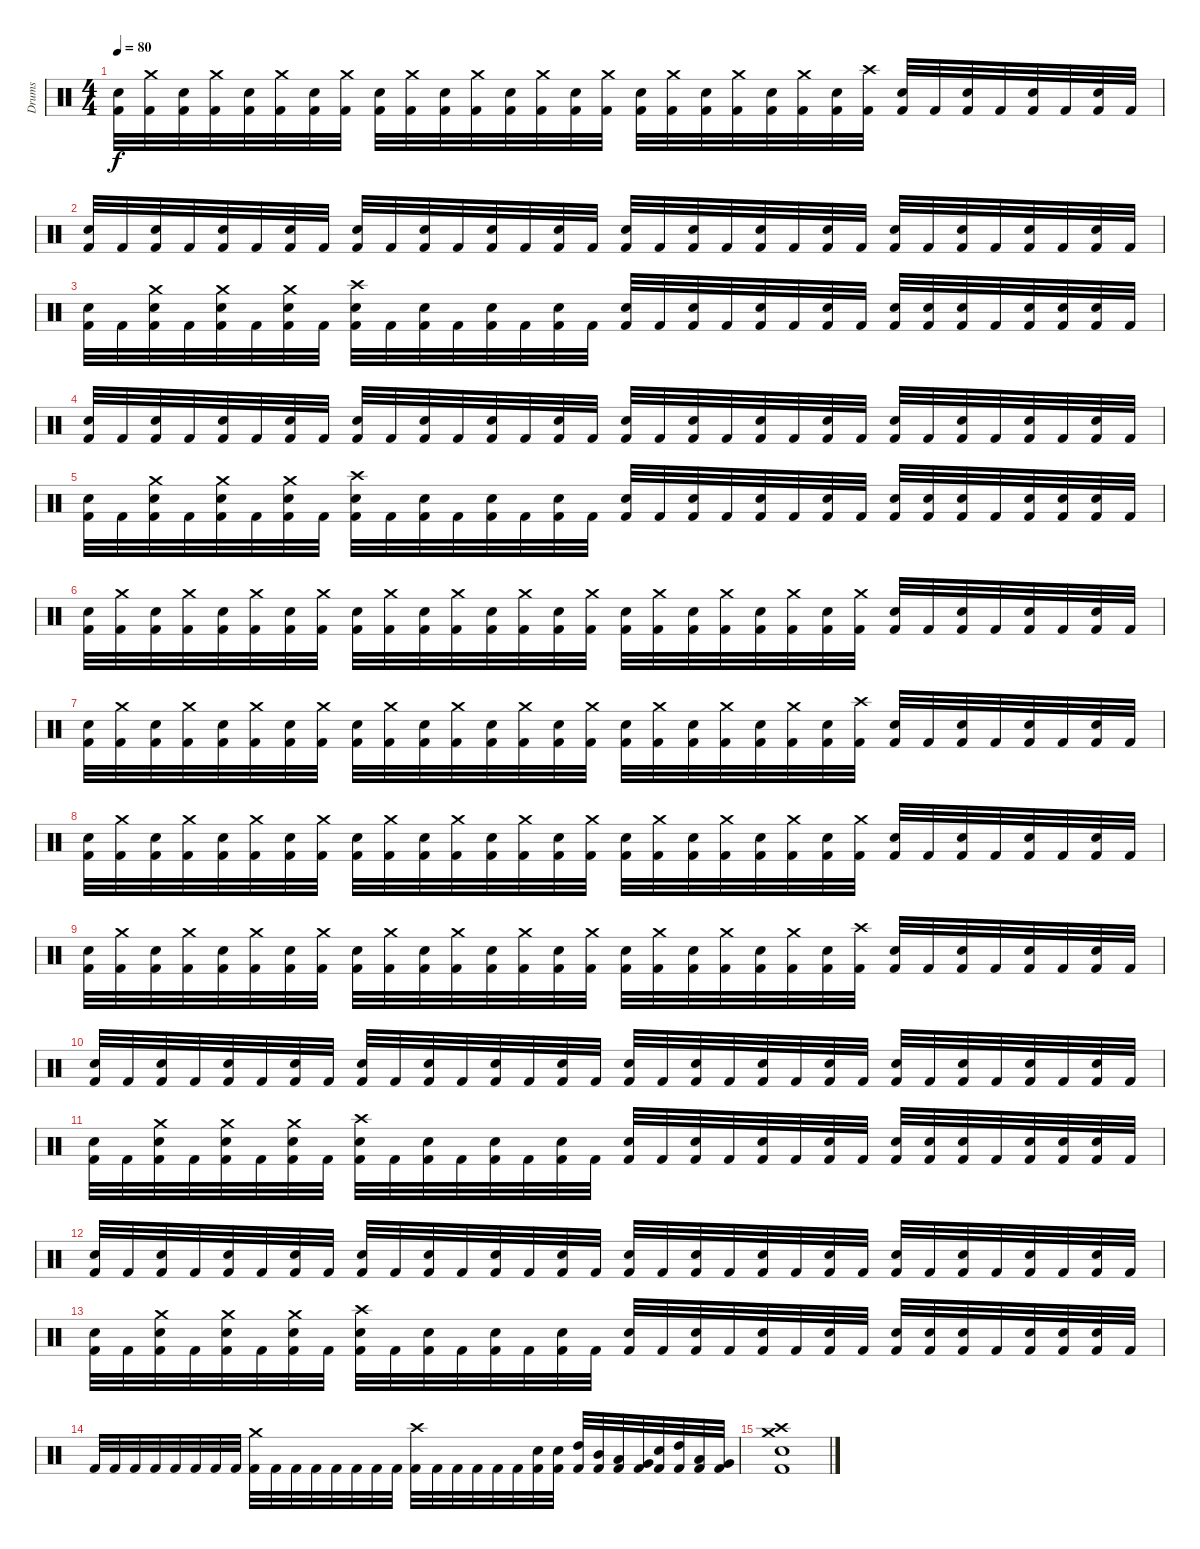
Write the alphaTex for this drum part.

\track ("Drums" "Drums") {instrument percussion}
\staff {score}
\articulation defaults
\ts (4 4)
\tempo 80
\clef neutral
\ks c
("Kick (hit) 2" "Snare (hit) 2").32{dy f} ("Kick (hit) 2" "Crash medium (hit)").32 ("Kick (hit) 2" "Snare (hit) 2").32 ("Kick (hit) 2" "Crash medium (hit)").32 ("Kick (hit) 2" "Snare (hit) 2").32 ("Kick (hit) 2" "Crash medium (hit)").32 ("Kick (hit) 2" "Snare (hit) 2").32 ("Kick (hit) 2" "Crash medium (hit)").32 ("Kick (hit) 2" "Snare (hit) 2").32 ("Kick (hit) 2" "Crash medium (hit)").32 ("Kick (hit) 2" "Snare (hit) 2").32 ("Kick (hit) 2" "Crash medium (hit)").32 ("Kick (hit) 2" "Snare (hit) 2").32 ("Kick (hit) 2" "Crash medium (hit)").32 ("Kick (hit) 2" "Snare (hit) 2").32 ("Kick (hit) 2" "Crash medium (hit)").32 ("Kick (hit) 2" "Snare (hit) 2").32 ("Kick (hit) 2" "Crash medium (hit)").32 ("Kick (hit) 2" "Snare (hit) 2").32 ("Kick (hit) 2" "Crash medium (hit)").32 ("Kick (hit) 2" "Snare (hit) 2").32 ("Kick (hit) 2" "Crash medium (hit)").32 ("Kick (hit) 2" "Snare (hit) 2").32 ("Kick (hit) 2" "Crash high (hit)").32 ("Kick (hit) 2" "Snare (hit) 2").32 "Kick (hit) 2".32 ("Kick (hit) 2" "Snare (hit) 2").32 "Kick (hit) 2".32 ("Kick (hit) 2" "Snare (hit) 2").32 "Kick (hit) 2".32 ("Kick (hit) 2" "Snare (hit) 2").32 "Kick (hit) 2".32 |
("Kick (hit) 2" "Snare (hit) 2").32 "Kick (hit) 2".32 ("Kick (hit) 2" "Snare (hit) 2").32 "Kick (hit) 2".32 ("Kick (hit) 2" "Snare (hit) 2").32 "Kick (hit) 2".32 ("Kick (hit) 2" "Snare (hit) 2").32 "Kick (hit) 2".32 ("Kick (hit) 2" "Snare (hit) 2").32 "Kick (hit) 2".32 ("Kick (hit) 2" "Snare (hit) 2").32 "Kick (hit) 2".32 ("Kick (hit) 2" "Snare (hit) 2").32 "Kick (hit) 2".32 ("Kick (hit) 2" "Snare (hit) 2").32 "Kick (hit) 2".32 ("Kick (hit) 2" "Snare (hit) 2").32 "Kick (hit) 2".32 ("Kick (hit) 2" "Snare (hit) 2").32 "Kick (hit) 2".32 ("Kick (hit) 2" "Snare (hit) 2").32 "Kick (hit) 2".32 ("Kick (hit) 2" "Snare (hit) 2").32 "Kick (hit) 2".32 ("Kick (hit) 2" "Snare (hit) 2").32 "Kick (hit) 2".32 ("Kick (hit) 2" "Snare (hit) 2").32 "Kick (hit) 2".32 ("Kick (hit) 2" "Snare (hit) 2").32 "Kick (hit) 2".32 ("Kick (hit) 2" "Snare (hit) 2").32 "Kick (hit) 2".32 |
("Kick (hit) 2" "Snare (hit) 2").32 "Kick (hit) 2".32 ("Kick (hit) 2" "Snare (hit) 2" "Crash medium (hit)").32 "Kick (hit) 2".32 ("Kick (hit) 2" "Snare (hit) 2" "Crash medium (hit)").32 "Kick (hit) 2".32 ("Kick (hit) 2" "Snare (hit) 2" "Crash medium (hit)").32 "Kick (hit) 2".32 ("Kick (hit) 2" "Snare (hit) 2" "Crash high (hit)").32 "Kick (hit) 2".32 ("Kick (hit) 2" "Snare (hit) 2").32 "Kick (hit) 2".32 ("Kick (hit) 2" "Snare (hit) 2").32 "Kick (hit) 2".32 ("Kick (hit) 2" "Snare (hit) 2").32 "Kick (hit) 2".32 ("Kick (hit) 2" "Snare (hit) 2").32 "Kick (hit) 2".32 ("Kick (hit) 2" "Snare (hit) 2").32 "Kick (hit) 2".32 ("Kick (hit) 2" "Snare (hit) 2").32 "Kick (hit) 2".32 ("Kick (hit) 2" "Snare (hit) 2").32 "Kick (hit) 2".32 ("Kick (hit) 2" "Snare (hit) 2").32 ("Kick (hit) 2" "Snare (hit) 2").32 ("Kick (hit) 2" "Snare (hit) 2").32 "Kick (hit) 2".32 ("Kick (hit) 2" "Snare (hit) 2").32 ("Kick (hit) 2" "Snare (hit) 2").32 ("Kick (hit) 2" "Snare (hit) 2").32 "Kick (hit) 2".32 |
("Kick (hit) 2" "Snare (hit) 2").32 "Kick (hit) 2".32 ("Kick (hit) 2" "Snare (hit) 2").32 "Kick (hit) 2".32 ("Kick (hit) 2" "Snare (hit) 2").32 "Kick (hit) 2".32 ("Kick (hit) 2" "Snare (hit) 2").32 "Kick (hit) 2".32 ("Kick (hit) 2" "Snare (hit) 2").32 "Kick (hit) 2".32 ("Kick (hit) 2" "Snare (hit) 2").32 "Kick (hit) 2".32 ("Kick (hit) 2" "Snare (hit) 2").32 "Kick (hit) 2".32 ("Kick (hit) 2" "Snare (hit) 2").32 "Kick (hit) 2".32 ("Kick (hit) 2" "Snare (hit) 2").32 "Kick (hit) 2".32 ("Kick (hit) 2" "Snare (hit) 2").32 "Kick (hit) 2".32 ("Kick (hit) 2" "Snare (hit) 2").32 "Kick (hit) 2".32 ("Kick (hit) 2" "Snare (hit) 2").32 "Kick (hit) 2".32 ("Kick (hit) 2" "Snare (hit) 2").32 "Kick (hit) 2".32 ("Kick (hit) 2" "Snare (hit) 2").32 "Kick (hit) 2".32 ("Kick (hit) 2" "Snare (hit) 2").32 "Kick (hit) 2".32 ("Kick (hit) 2" "Snare (hit) 2").32 "Kick (hit) 2".32 |
("Kick (hit) 2" "Snare (hit) 2").32 "Kick (hit) 2".32 ("Kick (hit) 2" "Snare (hit) 2" "Crash medium (hit)").32 "Kick (hit) 2".32 ("Kick (hit) 2" "Snare (hit) 2" "Crash medium (hit)").32 "Kick (hit) 2".32 ("Kick (hit) 2" "Snare (hit) 2" "Crash medium (hit)").32 "Kick (hit) 2".32 ("Kick (hit) 2" "Snare (hit) 2" "Crash high (hit)").32 "Kick (hit) 2".32 ("Kick (hit) 2" "Snare (hit) 2").32 "Kick (hit) 2".32 ("Kick (hit) 2" "Snare (hit) 2").32 "Kick (hit) 2".32 ("Kick (hit) 2" "Snare (hit) 2").32 "Kick (hit) 2".32 ("Kick (hit) 2" "Snare (hit) 2").32 "Kick (hit) 2".32 ("Kick (hit) 2" "Snare (hit) 2").32 "Kick (hit) 2".32 ("Kick (hit) 2" "Snare (hit) 2").32 "Kick (hit) 2".32 ("Kick (hit) 2" "Snare (hit) 2").32 "Kick (hit) 2".32 ("Kick (hit) 2" "Snare (hit) 2").32 ("Kick (hit) 2" "Snare (hit) 2").32 ("Kick (hit) 2" "Snare (hit) 2").32 "Kick (hit) 2".32 ("Kick (hit) 2" "Snare (hit) 2").32 ("Kick (hit) 2" "Snare (hit) 2").32 ("Kick (hit) 2" "Snare (hit) 2").32 "Kick (hit) 2".32 |
("Kick (hit) 2" "Snare (hit) 2").32 ("Kick (hit) 2" "Crash medium (hit)").32 ("Kick (hit) 2" "Snare (hit) 2").32 ("Kick (hit) 2" "Crash medium (hit)").32 ("Kick (hit) 2" "Snare (hit) 2").32 ("Kick (hit) 2" "Crash medium (hit)").32 ("Kick (hit) 2" "Snare (hit) 2").32 ("Kick (hit) 2" "Crash medium (hit)").32 ("Kick (hit) 2" "Snare (hit) 2").32 ("Kick (hit) 2" "Crash medium (hit)").32 ("Kick (hit) 2" "Snare (hit) 2").32 ("Kick (hit) 2" "Crash medium (hit)").32 ("Kick (hit) 2" "Snare (hit) 2").32 ("Kick (hit) 2" "Crash medium (hit)").32 ("Kick (hit) 2" "Snare (hit) 2").32 ("Kick (hit) 2" "Crash medium (hit)").32 ("Kick (hit) 2" "Snare (hit) 2").32 ("Kick (hit) 2" "Crash medium (hit)").32 ("Kick (hit) 2" "Snare (hit) 2").32 ("Kick (hit) 2" "Crash medium (hit)").32 ("Kick (hit) 2" "Snare (hit) 2").32 ("Kick (hit) 2" "Crash medium (hit)").32 ("Kick (hit) 2" "Snare (hit) 2").32 ("Kick (hit) 2" "Crash medium (hit)").32 ("Kick (hit) 2" "Snare (hit) 2").32 "Kick (hit) 2".32 ("Kick (hit) 2" "Snare (hit) 2").32 "Kick (hit) 2".32 ("Kick (hit) 2" "Snare (hit) 2").32 "Kick (hit) 2".32 ("Kick (hit) 2" "Snare (hit) 2").32 "Kick (hit) 2".32 |
("Kick (hit) 2" "Snare (hit) 2").32 ("Kick (hit) 2" "Crash medium (hit)").32 ("Kick (hit) 2" "Snare (hit) 2").32 ("Kick (hit) 2" "Crash medium (hit)").32 ("Kick (hit) 2" "Snare (hit) 2").32 ("Kick (hit) 2" "Crash medium (hit)").32 ("Kick (hit) 2" "Snare (hit) 2").32 ("Kick (hit) 2" "Crash medium (hit)").32 ("Kick (hit) 2" "Snare (hit) 2").32 ("Kick (hit) 2" "Crash medium (hit)").32 ("Kick (hit) 2" "Snare (hit) 2").32 ("Kick (hit) 2" "Crash medium (hit)").32 ("Kick (hit) 2" "Snare (hit) 2").32 ("Kick (hit) 2" "Crash medium (hit)").32 ("Kick (hit) 2" "Snare (hit) 2").32 ("Kick (hit) 2" "Crash medium (hit)").32 ("Kick (hit) 2" "Snare (hit) 2").32 ("Kick (hit) 2" "Crash medium (hit)").32 ("Kick (hit) 2" "Snare (hit) 2").32 ("Kick (hit) 2" "Crash medium (hit)").32 ("Kick (hit) 2" "Snare (hit) 2").32 ("Kick (hit) 2" "Crash medium (hit)").32 ("Kick (hit) 2" "Snare (hit) 2").32 ("Kick (hit) 2" "Crash high (hit)").32 ("Kick (hit) 2" "Snare (hit) 2").32 "Kick (hit) 2".32 ("Kick (hit) 2" "Snare (hit) 2").32 "Kick (hit) 2".32 ("Kick (hit) 2" "Snare (hit) 2").32 "Kick (hit) 2".32 ("Kick (hit) 2" "Snare (hit) 2").32 "Kick (hit) 2".32 |
("Kick (hit) 2" "Snare (hit) 2").32 ("Kick (hit) 2" "Crash medium (hit)").32 ("Kick (hit) 2" "Snare (hit) 2").32 ("Kick (hit) 2" "Crash medium (hit)").32 ("Kick (hit) 2" "Snare (hit) 2").32 ("Kick (hit) 2" "Crash medium (hit)").32 ("Kick (hit) 2" "Snare (hit) 2").32 ("Kick (hit) 2" "Crash medium (hit)").32 ("Kick (hit) 2" "Snare (hit) 2").32 ("Kick (hit) 2" "Crash medium (hit)").32 ("Kick (hit) 2" "Snare (hit) 2").32 ("Kick (hit) 2" "Crash medium (hit)").32 ("Kick (hit) 2" "Snare (hit) 2").32 ("Kick (hit) 2" "Crash medium (hit)").32 ("Kick (hit) 2" "Snare (hit) 2").32 ("Kick (hit) 2" "Crash medium (hit)").32 ("Kick (hit) 2" "Snare (hit) 2").32 ("Kick (hit) 2" "Crash medium (hit)").32 ("Kick (hit) 2" "Snare (hit) 2").32 ("Kick (hit) 2" "Crash medium (hit)").32 ("Kick (hit) 2" "Snare (hit) 2").32 ("Kick (hit) 2" "Crash medium (hit)").32 ("Kick (hit) 2" "Snare (hit) 2").32 ("Kick (hit) 2" "Crash medium (hit)").32 ("Kick (hit) 2" "Snare (hit) 2").32 "Kick (hit) 2".32 ("Kick (hit) 2" "Snare (hit) 2").32 "Kick (hit) 2".32 ("Kick (hit) 2" "Snare (hit) 2").32 "Kick (hit) 2".32 ("Kick (hit) 2" "Snare (hit) 2").32 "Kick (hit) 2".32 |
("Kick (hit) 2" "Snare (hit) 2").32 ("Kick (hit) 2" "Crash medium (hit)").32 ("Kick (hit) 2" "Snare (hit) 2").32 ("Kick (hit) 2" "Crash medium (hit)").32 ("Kick (hit) 2" "Snare (hit) 2").32 ("Kick (hit) 2" "Crash medium (hit)").32 ("Kick (hit) 2" "Snare (hit) 2").32 ("Kick (hit) 2" "Crash medium (hit)").32 ("Kick (hit) 2" "Snare (hit) 2").32 ("Kick (hit) 2" "Crash medium (hit)").32 ("Kick (hit) 2" "Snare (hit) 2").32 ("Kick (hit) 2" "Crash medium (hit)").32 ("Kick (hit) 2" "Snare (hit) 2").32 ("Kick (hit) 2" "Crash medium (hit)").32 ("Kick (hit) 2" "Snare (hit) 2").32 ("Kick (hit) 2" "Crash medium (hit)").32 ("Kick (hit) 2" "Snare (hit) 2").32 ("Kick (hit) 2" "Crash medium (hit)").32 ("Kick (hit) 2" "Snare (hit) 2").32 ("Kick (hit) 2" "Crash medium (hit)").32 ("Kick (hit) 2" "Snare (hit) 2").32 ("Kick (hit) 2" "Crash medium (hit)").32 ("Kick (hit) 2" "Snare (hit) 2").32 ("Kick (hit) 2" "Crash high (hit)").32 ("Kick (hit) 2" "Snare (hit) 2").32 "Kick (hit) 2".32 ("Kick (hit) 2" "Snare (hit) 2").32 "Kick (hit) 2".32 ("Kick (hit) 2" "Snare (hit) 2").32 "Kick (hit) 2".32 ("Kick (hit) 2" "Snare (hit) 2").32 "Kick (hit) 2".32 |
("Kick (hit) 2" "Snare (hit) 2").32 "Kick (hit) 2".32 ("Kick (hit) 2" "Snare (hit) 2").32 "Kick (hit) 2".32 ("Kick (hit) 2" "Snare (hit) 2").32 "Kick (hit) 2".32 ("Kick (hit) 2" "Snare (hit) 2").32 "Kick (hit) 2".32 ("Kick (hit) 2" "Snare (hit) 2").32 "Kick (hit) 2".32 ("Kick (hit) 2" "Snare (hit) 2").32 "Kick (hit) 2".32 ("Kick (hit) 2" "Snare (hit) 2").32 "Kick (hit) 2".32 ("Kick (hit) 2" "Snare (hit) 2").32 "Kick (hit) 2".32 ("Kick (hit) 2" "Snare (hit) 2").32 "Kick (hit) 2".32 ("Kick (hit) 2" "Snare (hit) 2").32 "Kick (hit) 2".32 ("Kick (hit) 2" "Snare (hit) 2").32 "Kick (hit) 2".32 ("Kick (hit) 2" "Snare (hit) 2").32 "Kick (hit) 2".32 ("Kick (hit) 2" "Snare (hit) 2").32 "Kick (hit) 2".32 ("Kick (hit) 2" "Snare (hit) 2").32 "Kick (hit) 2".32 ("Kick (hit) 2" "Snare (hit) 2").32 "Kick (hit) 2".32 ("Kick (hit) 2" "Snare (hit) 2").32 "Kick (hit) 2".32 |
("Kick (hit) 2" "Snare (hit) 2").32 "Kick (hit) 2".32 ("Kick (hit) 2" "Snare (hit) 2" "Crash medium (hit)").32 "Kick (hit) 2".32 ("Kick (hit) 2" "Snare (hit) 2" "Crash medium (hit)").32 "Kick (hit) 2".32 ("Kick (hit) 2" "Snare (hit) 2" "Crash medium (hit)").32 "Kick (hit) 2".32 ("Kick (hit) 2" "Snare (hit) 2" "Crash high (hit)").32 "Kick (hit) 2".32 ("Kick (hit) 2" "Snare (hit) 2").32 "Kick (hit) 2".32 ("Kick (hit) 2" "Snare (hit) 2").32 "Kick (hit) 2".32 ("Kick (hit) 2" "Snare (hit) 2").32 "Kick (hit) 2".32 ("Kick (hit) 2" "Snare (hit) 2").32 "Kick (hit) 2".32 ("Kick (hit) 2" "Snare (hit) 2").32 "Kick (hit) 2".32 ("Kick (hit) 2" "Snare (hit) 2").32 "Kick (hit) 2".32 ("Kick (hit) 2" "Snare (hit) 2").32 "Kick (hit) 2".32 ("Kick (hit) 2" "Snare (hit) 2").32 ("Kick (hit) 2" "Snare (hit) 2").32 ("Kick (hit) 2" "Snare (hit) 2").32 "Kick (hit) 2".32 ("Kick (hit) 2" "Snare (hit) 2").32 ("Kick (hit) 2" "Snare (hit) 2").32 ("Kick (hit) 2" "Snare (hit) 2").32 "Kick (hit) 2".32 |
("Kick (hit) 2" "Snare (hit) 2").32 "Kick (hit) 2".32 ("Kick (hit) 2" "Snare (hit) 2").32 "Kick (hit) 2".32 ("Kick (hit) 2" "Snare (hit) 2").32 "Kick (hit) 2".32 ("Kick (hit) 2" "Snare (hit) 2").32 "Kick (hit) 2".32 ("Kick (hit) 2" "Snare (hit) 2").32 "Kick (hit) 2".32 ("Kick (hit) 2" "Snare (hit) 2").32 "Kick (hit) 2".32 ("Kick (hit) 2" "Snare (hit) 2").32 "Kick (hit) 2".32 ("Kick (hit) 2" "Snare (hit) 2").32 "Kick (hit) 2".32 ("Kick (hit) 2" "Snare (hit) 2").32 "Kick (hit) 2".32 ("Kick (hit) 2" "Snare (hit) 2").32 "Kick (hit) 2".32 ("Kick (hit) 2" "Snare (hit) 2").32 "Kick (hit) 2".32 ("Kick (hit) 2" "Snare (hit) 2").32 "Kick (hit) 2".32 ("Kick (hit) 2" "Snare (hit) 2").32 "Kick (hit) 2".32 ("Kick (hit) 2" "Snare (hit) 2").32 "Kick (hit) 2".32 ("Kick (hit) 2" "Snare (hit) 2").32 "Kick (hit) 2".32 ("Kick (hit) 2" "Snare (hit) 2").32 "Kick (hit) 2".32 |
("Kick (hit) 2" "Snare (hit) 2").32 "Kick (hit) 2".32 ("Kick (hit) 2" "Snare (hit) 2" "Crash medium (hit)").32 "Kick (hit) 2".32 ("Kick (hit) 2" "Snare (hit) 2" "Crash medium (hit)").32 "Kick (hit) 2".32 ("Kick (hit) 2" "Snare (hit) 2" "Crash medium (hit)").32 "Kick (hit) 2".32 ("Kick (hit) 2" "Snare (hit) 2" "Crash high (hit)").32 "Kick (hit) 2".32 ("Kick (hit) 2" "Snare (hit) 2").32 "Kick (hit) 2".32 ("Kick (hit) 2" "Snare (hit) 2").32 "Kick (hit) 2".32 ("Kick (hit) 2" "Snare (hit) 2").32 "Kick (hit) 2".32 ("Kick (hit) 2" "Snare (hit) 2").32 "Kick (hit) 2".32 ("Kick (hit) 2" "Snare (hit) 2").32 "Kick (hit) 2".32 ("Kick (hit) 2" "Snare (hit) 2").32 "Kick (hit) 2".32 ("Kick (hit) 2" "Snare (hit) 2").32 "Kick (hit) 2".32 ("Kick (hit) 2" "Snare (hit) 2").32 ("Kick (hit) 2" "Snare (hit) 2").32 ("Kick (hit) 2" "Snare (hit) 2").32 "Kick (hit) 2".32 ("Kick (hit) 2" "Snare (hit) 2").32 ("Kick (hit) 2" "Snare (hit) 2").32 ("Kick (hit) 2" "Snare (hit) 2").32 "Kick (hit) 2".32 |
"Kick (hit) 2".32 "Kick (hit) 2".32 "Kick (hit) 2".32 "Kick (hit) 2".32 "Kick (hit) 2".32 "Kick (hit) 2".32 "Kick (hit) 2".32 "Kick (hit) 2".32 ("Kick (hit) 2" "Crash medium (hit)").32 "Kick (hit) 2".32 "Kick (hit) 2".32 "Kick (hit) 2".32 "Kick (hit) 2".32 "Kick (hit) 2".32 "Kick (hit) 2".32 "Kick (hit) 2".32 ("Kick (hit) 2" "Crash high (hit)").32 "Kick (hit) 2".32 "Kick (hit) 2".32 "Kick (hit) 2".32 "Kick (hit) 2".32 "Kick (hit) 2".32 ("Kick (hit) 2" "Snare (hit) 2").32 ("Kick (hit) 2" "Snare (hit) 2").32 ("Kick (hit) 2" "High Tom (hit)").32 ("Kick (hit) 2" "Mid Tom (hit)").32 ("Kick (hit) 2" "Low Tom (hit)").32 ("Kick (hit) 2" "Very Low Tom (hit)").32 ("Kick (hit) 2" "Snare (hit) 2").32 ("Kick (hit) 2" "High Tom (hit)").32 ("Kick (hit) 2" "Low Tom (hit)").32 ("Kick (hit) 2" "Very Low Tom (hit)").32 |
("Kick (hit) 2" "Snare (hit) 2" "Crash medium (hit)" "Crash high (hit)").1
